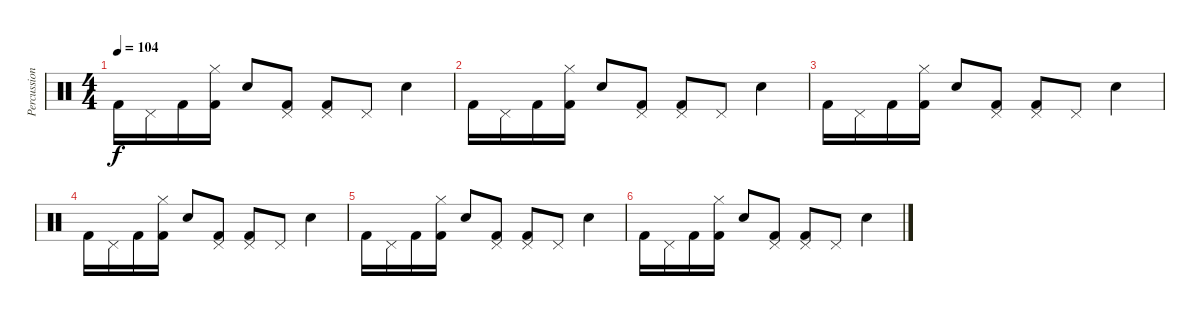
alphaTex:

\track ("Percussion" "Percussion") {instrument percussion}
\staff {score}
\articulation defaults
\ts (4 4)
\tempo 104
\clef neutral
\ks c "Kick (hit) 2".16{dy f} "Pedal Hi-Hat (hit)".16 "Kick (hit) 2".16
("Hi-Hat (closed)" "Kick (hit) 2").16 "Snare (hit) 2".8 ("Pedal Hi-Hat (hit)" "Kick (hit) 2").8 ("Pedal Hi-Hat (hit)" "Kick (hit) 2").8 "Pedal Hi-Hat (hit)".8 "Snare (hit) 2".4 |
"Kick (hit) 2".16 "Pedal Hi-Hat (hit)".16 "Kick (hit) 2".16 ("Hi-Hat (closed)" "Kick (hit) 2").16 "Snare (hit) 2".8 ("Pedal Hi-Hat (hit)" "Kick (hit) 2").8 ("Pedal Hi-Hat (hit)" "Kick (hit) 2").8 "Pedal Hi-Hat (hit)".8 "Snare (hit) 2".4 |
"Kick (hit) 2".16 "Pedal Hi-Hat (hit)".16 "Kick (hit) 2".16 ("Hi-Hat (closed)" "Kick (hit) 2").16 "Snare (hit) 2".8 ("Pedal Hi-Hat (hit)" "Kick (hit) 2").8 ("Pedal Hi-Hat (hit)" "Kick (hit) 2").8 "Pedal Hi-Hat (hit)".8 "Snare (hit) 2".4 |
"Kick (hit) 2".16 "Pedal Hi-Hat (hit)".16 "Kick (hit) 2".16 ("Hi-Hat (closed)" "Kick (hit) 2").16 "Snare (hit) 2".8 ("Pedal Hi-Hat (hit)" "Kick (hit) 2").8 ("Pedal Hi-Hat (hit)" "Kick (hit) 2").8 "Pedal Hi-Hat (hit)".8 "Snare (hit) 2".4 |
"Kick (hit) 2".16 "Pedal Hi-Hat (hit)".16 "Kick (hit) 2".16 ("Hi-Hat (closed)" "Kick (hit) 2").16 "Snare (hit) 2".8 ("Pedal Hi-Hat (hit)" "Kick (hit) 2").8 ("Pedal Hi-Hat (hit)" "Kick (hit) 2").8 "Pedal Hi-Hat (hit)".8 "Snare (hit) 2".4 |
"Kick (hit) 2".16 "Pedal Hi-Hat (hit)".16 "Kick (hit) 2".16 ("Hi-Hat (closed)" "Kick (hit) 2").16 "Snare (hit) 2".8 ("Pedal Hi-Hat (hit)" "Kick (hit) 2").8 ("Pedal Hi-Hat (hit)" "Kick (hit) 2").8 "Pedal Hi-Hat (hit)".8 "Snare (hit) 2".4
